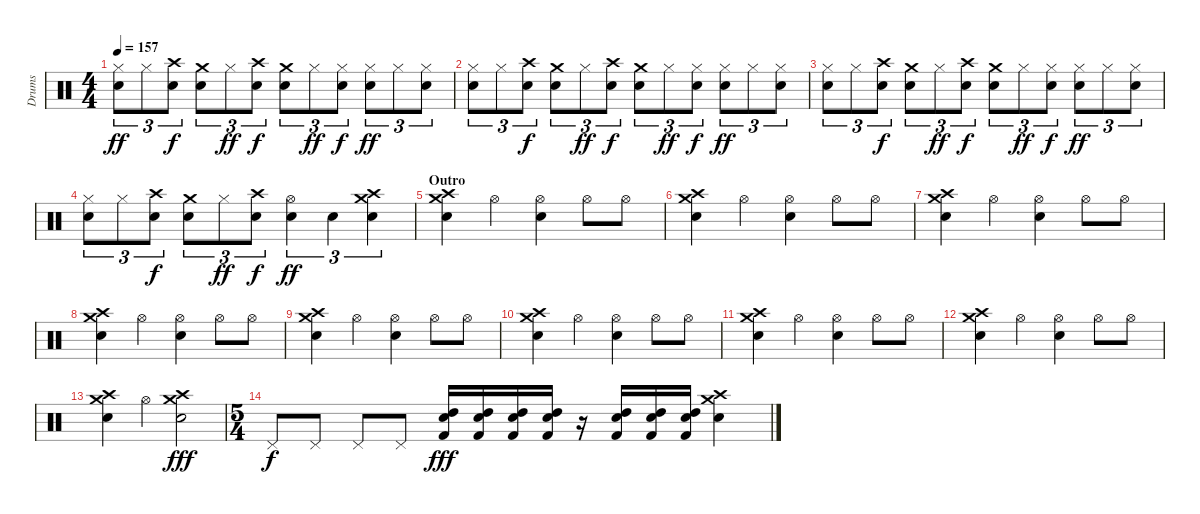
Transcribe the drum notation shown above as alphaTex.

\track ("Drums" "Drums") {instrument percussion}
\staff {score}
\articulation defaults
\ts (4 4)
\tempo 157
\clef neutral
\ks c
("Hi-Hat (closed)" "Electric Snare (hit)").8{tu (3 2) dy ff} "Hi-Hat (closed)".8{tu (3 2)} ("Electric Snare (hit)" "Crash high (hit)").8{tu (3 2) dy f} ("Crash medium (hit)" "Electric Snare (hit)").8{tu (3 2)} "Hi-Hat (closed)".8{tu (3 2) dy ff} ("Electric Snare (hit)" "Crash high (hit)").8{tu (3 2) dy f} ("Crash medium (hit)" "Electric Snare (hit)").8{tu (3 2)} "Hi-Hat (closed)".8{tu (3 2) dy ff} ("Electric Snare (hit)" "Hi-Hat (closed)").8{tu (3 2) dy f} ("Hi-Hat (closed)" "Electric Snare (hit)").8{tu (3 2) dy ff} "Hi-Hat (closed)".8{tu (3 2)} ("Hi-Hat (closed)" "Electric Snare (hit)").8{tu (3 2)} |
("Hi-Hat (closed)" "Electric Snare (hit)").8{tu (3 2)} "Hi-Hat (closed)".8{tu (3 2)} ("Electric Snare (hit)" "Crash high (hit)").8{tu (3 2) dy f} ("Crash medium (hit)" "Electric Snare (hit)").8{tu (3 2)} "Hi-Hat (closed)".8{tu (3 2) dy ff} ("Electric Snare (hit)" "Crash high (hit)").8{tu (3 2) dy f} ("Crash medium (hit)" "Electric Snare (hit)").8{tu (3 2)} "Hi-Hat (closed)".8{tu (3 2) dy ff} ("Electric Snare (hit)" "Hi-Hat (closed)").8{tu (3 2) dy f} ("Hi-Hat (closed)" "Electric Snare (hit)").8{tu (3 2) dy ff} "Hi-Hat (closed)".8{tu (3 2)} ("Hi-Hat (closed)" "Electric Snare (hit)").8{tu (3 2)} |
("Hi-Hat (closed)" "Electric Snare (hit)").8{tu (3 2)} "Hi-Hat (closed)".8{tu (3 2)} ("Electric Snare (hit)" "Crash high (hit)").8{tu (3 2) dy f} ("Crash medium (hit)" "Electric Snare (hit)").8{tu (3 2)} "Hi-Hat (closed)".8{tu (3 2) dy ff} ("Electric Snare (hit)" "Crash high (hit)").8{tu (3 2) dy f} ("Crash medium (hit)" "Electric Snare (hit)").8{tu (3 2)} "Hi-Hat (closed)".8{tu (3 2) dy ff} ("Electric Snare (hit)" "Hi-Hat (closed)").8{tu (3 2) dy f} ("Hi-Hat (closed)" "Electric Snare (hit)").8{tu (3 2) dy ff} "Hi-Hat (closed)".8{tu (3 2)} ("Hi-Hat (closed)" "Electric Snare (hit)").8{tu (3 2)} |
("Hi-Hat (closed)" "Electric Snare (hit)").8{tu (3 2)} "Hi-Hat (closed)".8{tu (3 2)} ("Electric Snare (hit)" "Crash high (hit)").8{tu (3 2) dy f} ("Crash medium (hit)" "Electric Snare (hit)").8{tu (3 2)} "Hi-Hat (closed)".8{tu (3 2) dy ff} ("Electric Snare (hit)" "Crash high (hit)").8{tu (3 2) dy f} ("Hi-Hat (open)" "Electric Snare (hit)").4{tu (3 2) dy ff} "Electric Snare (hit)".4{tu (3 2)} ("Electric Snare (hit)" "Crash medium (hit)" "Crash high (hit)").4{tu (3 2)} |
\section ("" "Outro")
("Crash high (hit)" "Crash medium (hit)" "Electric Snare (hit)").4 "Hi-Hat (open)".4 ("Electric Snare (hit)" "Hi-Hat (open)").4 "Hi-Hat (open)".8 "Hi-Hat (open)".8 |
("Crash high (hit)" "Crash medium (hit)" "Electric Snare (hit)").4 "Hi-Hat (open)".4 ("Electric Snare (hit)" "Hi-Hat (open)").4 "Hi-Hat (open)".8 "Hi-Hat (open)".8 |
("Crash high (hit)" "Crash medium (hit)" "Electric Snare (hit)").4 "Hi-Hat (open)".4 ("Electric Snare (hit)" "Hi-Hat (open)").4 "Hi-Hat (open)".8 "Hi-Hat (open)".8 |
("Crash high (hit)" "Crash medium (hit)" "Electric Snare (hit)").4 "Hi-Hat (open)".4 ("Electric Snare (hit)" "Hi-Hat (open)").4 "Hi-Hat (open)".8 "Hi-Hat (open)".8 |
("Crash high (hit)" "Crash medium (hit)" "Electric Snare (hit)").4 "Hi-Hat (open)".4 ("Electric Snare (hit)" "Hi-Hat (open)").4 "Hi-Hat (open)".8 "Hi-Hat (open)".8 |
("Crash high (hit)" "Crash medium (hit)" "Electric Snare (hit)").4 "Hi-Hat (open)".4 ("Electric Snare (hit)" "Hi-Hat (open)").4 "Hi-Hat (open)".8 "Hi-Hat (open)".8 |
("Crash high (hit)" "Crash medium (hit)" "Electric Snare (hit)").4 "Hi-Hat (open)".4 ("Electric Snare (hit)" "Hi-Hat (open)").4 "Hi-Hat (open)".8 "Hi-Hat (open)".8 |
("Crash high (hit)" "Crash medium (hit)" "Electric Snare (hit)").4 "Hi-Hat (open)".4 ("Electric Snare (hit)" "Hi-Hat (open)").4 "Hi-Hat (open)".8 "Hi-Hat (open)".8 |
("Electric Snare (hit)" "Crash medium (hit)" "Crash high (hit)").4 "Hi-Hat (open)".4 ("Electric Snare (hit)" "Crash medium (hit)" "Crash high (hit)").2{dy fff} |
\ts (5 4)
"Pedal Hi-Hat (hit)".8{dy f} "Pedal Hi-Hat (hit)".8 "Pedal Hi-Hat (hit)".8 "Pedal Hi-Hat (hit)".8 ("High Tom (hit)" "Electric Snare (hit)" "Kick (hit) 2").16{dy fff} ("High Tom (hit)" "Electric Snare (hit)" "Kick (hit) 2").16 ("High Tom (hit)" "Electric Snare (hit)" "Kick (hit) 2").16 ("High Tom (hit)" "Electric Snare (hit)" "Kick (hit) 2").16 r.16 ("High Tom (hit)" "Electric Snare (hit)" "Kick (hit) 2").16 ("High Tom (hit)" "Electric Snare (hit)" "Kick (hit) 2").16 ("High Tom (hit)" "Electric Snare (hit)" "Kick (hit) 2").16 ("Crash medium (hit)" "Electric Snare (hit)" "Crash high (hit)").4
